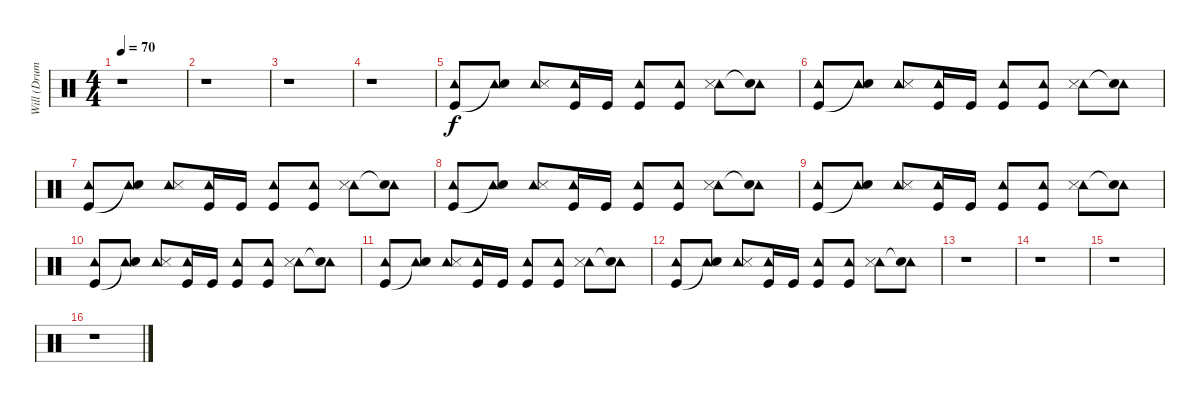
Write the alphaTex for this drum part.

\track ("Will (Drums)" "Will (Drum") {instrument percussion}
\staff {score}
\articulation defaults
\ts (4 4)
\tempo 70
\clef neutral
\ks c
r.1{dy f} |
r.1 |
r.1 |
r.1 |
("Tambourine (hit)" "Kick (hit)").8 ("Tambourine (hit)" "Snare (hit)"{t}).8 ("Tambourine (hit)" "Snare (side stick) 3").8 ("Tambourine (hit)" "Kick (hit)").16 "Kick (hit)".16 ("Tambourine (hit)" "Kick (hit)").8 ("Tambourine (hit)" "Kick (hit)").8 ("Tambourine (hit)" "Snare (side stick) 3").8 ("Tambourine (hit)" "Snare (hit)"{t}).8 |
("Tambourine (hit)" "Kick (hit)").8 ("Tambourine (hit)" "Snare (hit)"{t}).8 ("Tambourine (hit)" "Snare (side stick) 3").8 ("Tambourine (hit)" "Kick (hit)").16 "Kick (hit)".16 ("Tambourine (hit)" "Kick (hit)").8 ("Tambourine (hit)" "Kick (hit)").8 ("Tambourine (hit)" "Snare (side stick) 3").8 ("Tambourine (hit)" "Snare (hit)"{t}).8 |
("Tambourine (hit)" "Kick (hit)").8 ("Tambourine (hit)" "Snare (hit)"{t}).8 ("Tambourine (hit)" "Snare (side stick) 3").8 ("Tambourine (hit)" "Kick (hit)").16 "Kick (hit)".16 ("Tambourine (hit)" "Kick (hit)").8 ("Tambourine (hit)" "Kick (hit)").8 ("Tambourine (hit)" "Snare (side stick) 3").8 ("Tambourine (hit)" "Snare (hit)"{t}).8 |
("Tambourine (hit)" "Kick (hit)").8 ("Tambourine (hit)" "Snare (hit)"{t}).8 ("Tambourine (hit)" "Snare (side stick) 3").8 ("Tambourine (hit)" "Kick (hit)").16 "Kick (hit)".16 ("Tambourine (hit)" "Kick (hit)").8 ("Tambourine (hit)" "Kick (hit)").8 ("Tambourine (hit)" "Snare (side stick) 3").8 ("Tambourine (hit)" "Snare (hit)"{t}).8 |
("Tambourine (hit)" "Kick (hit)").8 ("Tambourine (hit)" "Snare (hit)"{t}).8 ("Tambourine (hit)" "Snare (side stick) 3").8 ("Tambourine (hit)" "Kick (hit)").16 "Kick (hit)".16 ("Tambourine (hit)" "Kick (hit)").8 ("Tambourine (hit)" "Kick (hit)").8 ("Tambourine (hit)" "Snare (side stick) 3").8 ("Tambourine (hit)" "Snare (hit)"{t}).8 |
("Tambourine (hit)" "Kick (hit)").8 ("Tambourine (hit)" "Snare (hit)"{t}).8 ("Tambourine (hit)" "Snare (side stick) 3").8 ("Tambourine (hit)" "Kick (hit)").16 "Kick (hit)".16 ("Tambourine (hit)" "Kick (hit)").8 ("Tambourine (hit)" "Kick (hit)").8 ("Tambourine (hit)" "Snare (side stick) 3").8 ("Tambourine (hit)" "Snare (hit)"{t}).8 |
("Tambourine (hit)" "Kick (hit)").8 ("Tambourine (hit)" "Snare (hit)"{t}).8 ("Tambourine (hit)" "Snare (side stick) 3").8 ("Tambourine (hit)" "Kick (hit)").16 "Kick (hit)".16 ("Tambourine (hit)" "Kick (hit)").8 ("Tambourine (hit)" "Kick (hit)").8 ("Tambourine (hit)" "Snare (side stick) 3").8 ("Tambourine (hit)" "Snare (hit)"{t}).8 |
("Tambourine (hit)" "Kick (hit)").8 ("Tambourine (hit)" "Snare (hit)"{t}).8 ("Tambourine (hit)" "Snare (side stick) 3").8 ("Tambourine (hit)" "Kick (hit)").16 "Kick (hit)".16 ("Tambourine (hit)" "Kick (hit)").8 ("Tambourine (hit)" "Kick (hit)").8 ("Tambourine (hit)" "Snare (side stick) 3").8 ("Tambourine (hit)" "Snare (hit)"{t}).8 |
r.1 |
r.1 |
r.1 |
r.1
